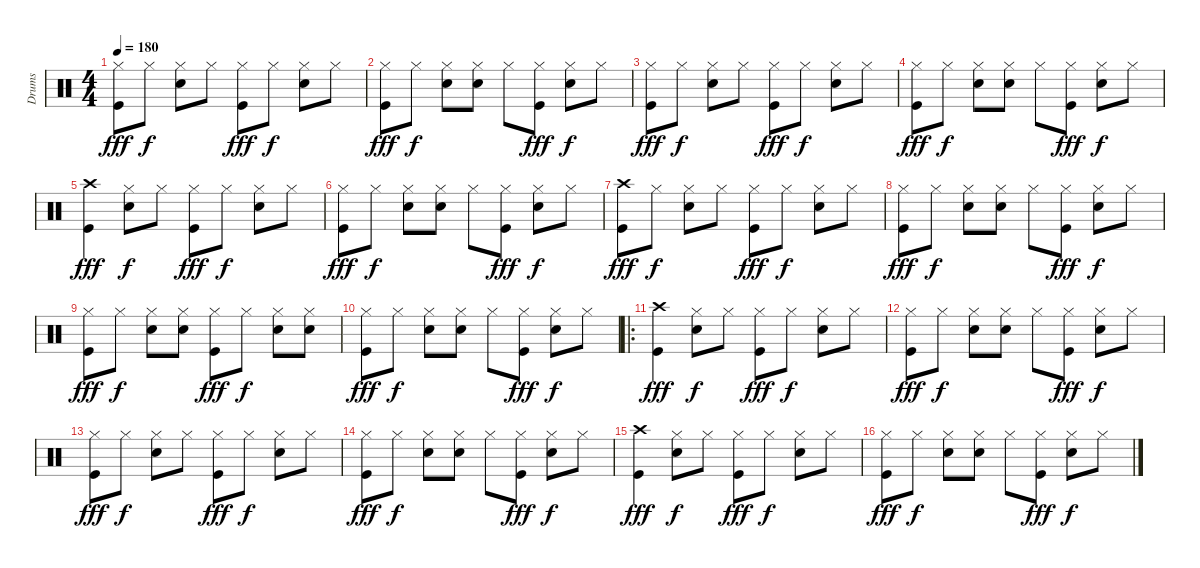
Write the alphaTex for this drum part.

\track ("Drums" "Drums") {instrument percussion}
\staff {score}
\articulation defaults
\ts (4 4)
\tempo 180
\clef neutral
\ks c
("Hi-Hat (closed)" "Kick (hit)").8{dy fff} "Hi-Hat (closed)".8{dy f} ("Hi-Hat (closed)" "Snare (hit) 2").8 "Hi-Hat (closed)".8 ("Hi-Hat (closed)" "Kick (hit)").8{dy fff} "Hi-Hat (closed)".8{dy f} ("Hi-Hat (closed)" "Snare (hit) 2").8 "Hi-Hat (closed)".8 |
("Hi-Hat (closed)" "Kick (hit)").8{dy fff} "Hi-Hat (closed)".8{dy f} ("Hi-Hat (closed)" "Snare (hit) 2").8 ("Hi-Hat (closed)" "Snare (hit) 2").8 "Hi-Hat (closed)".8 ("Hi-Hat (closed)" "Kick (hit)").8{dy fff} ("Hi-Hat (closed)" "Snare (hit) 2").8{dy f} "Hi-Hat (closed)".8 |
("Hi-Hat (closed)" "Kick (hit)").8{dy fff} "Hi-Hat (closed)".8{dy f} ("Hi-Hat (closed)" "Snare (hit) 2").8 "Hi-Hat (closed)".8 ("Hi-Hat (closed)" "Kick (hit)").8{dy fff} "Hi-Hat (closed)".8{dy f} ("Hi-Hat (closed)" "Snare (hit) 2").8 "Hi-Hat (closed)".8 |
("Hi-Hat (closed)" "Kick (hit)").8{dy fff} "Hi-Hat (closed)".8{dy f} ("Hi-Hat (closed)" "Snare (hit) 2").8 ("Hi-Hat (closed)" "Snare (hit) 2").8 "Hi-Hat (closed)".8 ("Hi-Hat (closed)" "Kick (hit)").8{dy fff} ("Hi-Hat (closed)" "Snare (hit) 2").8{dy f} "Hi-Hat (closed)".8 |
("Crash high (hit)" "Kick (hit)").4{dy fff} ("Hi-Hat (closed)" "Snare (hit) 2").8{dy f} "Hi-Hat (closed)".8 ("Hi-Hat (closed)" "Kick (hit)").8{dy fff} "Hi-Hat (closed)".8{dy f} ("Hi-Hat (closed)" "Snare (hit) 2").8 "Hi-Hat (closed)".8 |
("Hi-Hat (closed)" "Kick (hit)").8{dy fff} "Hi-Hat (closed)".8{dy f} ("Hi-Hat (closed)" "Snare (hit) 2").8 ("Hi-Hat (closed)" "Snare (hit) 2").8 "Hi-Hat (closed)".8 ("Hi-Hat (closed)" "Kick (hit)").8{dy fff} ("Hi-Hat (closed)" "Snare (hit) 2").8{dy f} "Hi-Hat (closed)".8 |
("Crash high (hit)" "Kick (hit)").8{dy fff} "Hi-Hat (closed)".8{dy f} ("Hi-Hat (closed)" "Snare (hit) 2").8 "Hi-Hat (closed)".8 ("Hi-Hat (closed)" "Kick (hit)").8{dy fff} "Hi-Hat (closed)".8{dy f} ("Hi-Hat (closed)" "Snare (hit) 2").8 "Hi-Hat (closed)".8 |
("Hi-Hat (closed)" "Kick (hit)").8{dy fff} "Hi-Hat (closed)".8{dy f} ("Hi-Hat (closed)" "Snare (hit) 2").8 ("Hi-Hat (closed)" "Snare (hit) 2").8 "Hi-Hat (closed)".8 ("Hi-Hat (closed)" "Kick (hit)").8{dy fff} ("Hi-Hat (closed)" "Snare (hit) 2").8{dy f} "Hi-Hat (closed)".8 |
("Hi-Hat (closed)" "Kick (hit)").8{dy fff} "Hi-Hat (closed)".8{dy f} ("Hi-Hat (closed)" "Snare (hit) 2").8 ("Hi-Hat (closed)" "Snare (hit) 2").8 ("Hi-Hat (closed)" "Kick (hit)").8{dy fff} "Hi-Hat (closed)".8{dy f} ("Hi-Hat (closed)" "Snare (hit) 2").8 ("Hi-Hat (closed)" "Snare (hit) 2").8 |
("Hi-Hat (closed)" "Kick (hit)").8{dy fff} "Hi-Hat (closed)".8{dy f} ("Hi-Hat (closed)" "Snare (hit) 2").8 ("Hi-Hat (closed)" "Snare (hit) 2").8 "Hi-Hat (closed)".8 ("Hi-Hat (closed)" "Kick (hit)").8{dy fff} ("Hi-Hat (closed)" "Snare (hit) 2").8{dy f} "Hi-Hat (closed)".8 |
\ro
("Crash high (hit)" "Kick (hit)").4{dy fff} ("Hi-Hat (closed)" "Snare (hit) 2").8{dy f} "Hi-Hat (closed)".8 ("Hi-Hat (closed)" "Kick (hit)").8{dy fff} "Hi-Hat (closed)".8{dy f} ("Hi-Hat (closed)" "Snare (hit) 2").8 "Hi-Hat (closed)".8 |
("Hi-Hat (closed)" "Kick (hit)").8{dy fff} "Hi-Hat (closed)".8{dy f} ("Hi-Hat (closed)" "Snare (hit) 2").8 ("Hi-Hat (closed)" "Snare (hit) 2").8 "Hi-Hat (closed)".8 ("Hi-Hat (closed)" "Kick (hit)").8{dy fff} ("Hi-Hat (closed)" "Snare (hit) 2").8{dy f} "Hi-Hat (closed)".8 |
("Hi-Hat (closed)" "Kick (hit)").8{dy fff} "Hi-Hat (closed)".8{dy f} ("Hi-Hat (closed)" "Snare (hit) 2").8 "Hi-Hat (closed)".8 ("Hi-Hat (closed)" "Kick (hit)").8{dy fff} "Hi-Hat (closed)".8{dy f} ("Hi-Hat (closed)" "Snare (hit) 2").8 "Hi-Hat (closed)".8 |
("Hi-Hat (closed)" "Kick (hit)").8{dy fff} "Hi-Hat (closed)".8{dy f} ("Hi-Hat (closed)" "Snare (hit) 2").8 ("Hi-Hat (closed)" "Snare (hit) 2").8 "Hi-Hat (closed)".8 ("Hi-Hat (closed)" "Kick (hit)").8{dy fff} ("Hi-Hat (closed)" "Snare (hit) 2").8{dy f} "Hi-Hat (closed)".8 |
("Crash high (hit)" "Kick (hit)").4{dy fff} ("Hi-Hat (closed)" "Snare (hit) 2").8{dy f} "Hi-Hat (closed)".8 ("Hi-Hat (closed)" "Kick (hit)").8{dy fff} "Hi-Hat (closed)".8{dy f} ("Hi-Hat (closed)" "Snare (hit) 2").8 "Hi-Hat (closed)".8 |
("Hi-Hat (closed)" "Kick (hit)").8{dy fff} "Hi-Hat (closed)".8{dy f} ("Hi-Hat (closed)" "Snare (hit) 2").8 ("Hi-Hat (closed)" "Snare (hit) 2").8 "Hi-Hat (closed)".8 ("Hi-Hat (closed)" "Kick (hit)").8{dy fff} ("Hi-Hat (closed)" "Snare (hit) 2").8{dy f} "Hi-Hat (closed)".8
